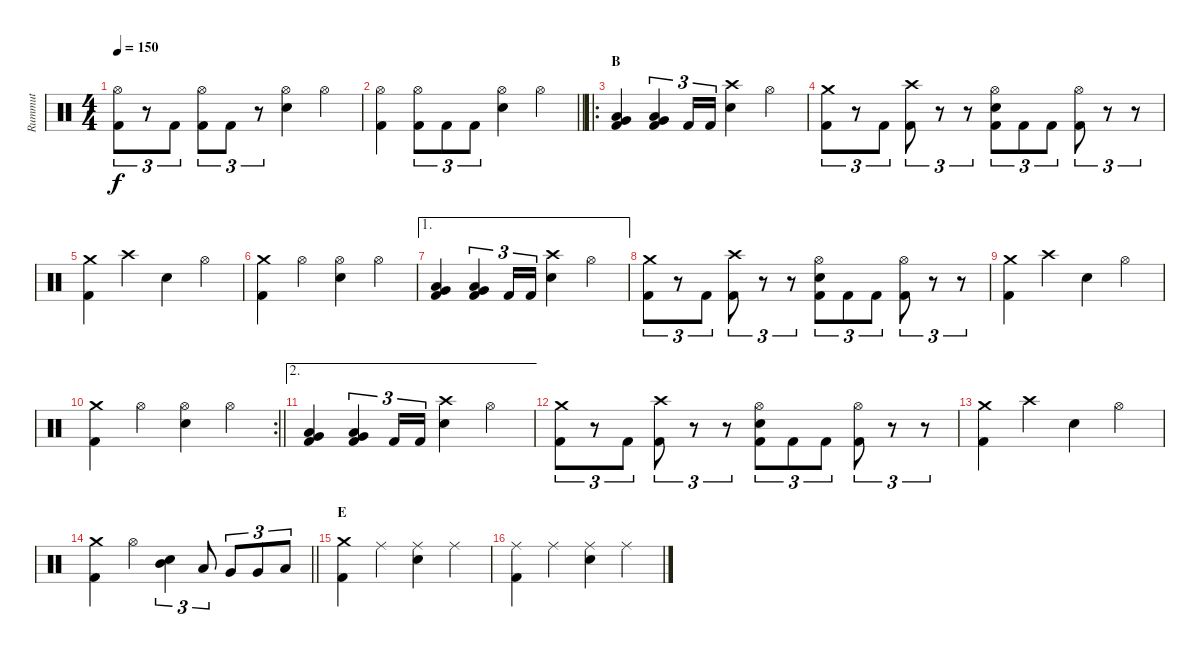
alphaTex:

\track ("Rummut" "Rummut") {mute instrument percussion}
\staff {score}
\articulation defaults
\ts (4 4)
\tempo 150
\clef neutral
\ks c
("Hi-Hat (open)" "Kick (hit) 2").8{tu (3 2) dy f} r.8{tu (3 2)} "Kick (hit) 2".8{tu (3 2)} ("Hi-Hat (open)" "Kick (hit) 2").8{tu (3 2)} "Kick (hit) 2".8{tu (3 2)} r.8{tu (3 2)} ("Hi-Hat (open)" "Electric Snare (hit)").4 "Hi-Hat (open)".4 |
\barLineRight lightlight
("Hi-Hat (open)" "Kick (hit) 2").4 ("Hi-Hat (open)" "Kick (hit) 2").8{tu (3 2)} "Kick (hit) 2".8{tu (3 2)} "Kick (hit) 2".8{tu (3 2)} ("Hi-Hat (open)" "Electric Snare (hit)").4 "Hi-Hat (open)".4 |
\ro
\section ("" "B")
("Low Floor Tom (hit)" "Very Low Tom (hit)" "Kick (hit) 2").4 ("Low Floor Tom (hit)" "Very Low Tom (hit)" "Kick (hit) 2").4{tu (3 2)} "Kick (hit) 2".16{tu (3 2)} "Kick (hit) 2".16{tu (3 2)} ("Crash high (hit)" "Electric Snare (hit)").4 "Hi-Hat (open)".4 |
("Crash medium (hit)" "Kick (hit) 2").8{tu (3 2)} r.8{tu (3 2)} "Kick (hit) 2".8{tu (3 2)} ("Crash high (hit)" "Kick (hit) 2").8{tu (3 2)} r.8{tu (3 2)} r.8{tu (3 2)} ("Hi-Hat (open)" "Electric Snare (hit)" "Kick (hit) 2").8{tu (3 2)} "Kick (hit) 2".8{tu (3 2)} "Kick (hit) 2".8{tu (3 2)} ("Hi-Hat (open)" "Kick (hit) 2").8{tu (3 2)} r.8{tu (3 2)} r.8{tu (3 2)} |
("Crash medium (hit)" "Kick (hit) 2").4 "Crash high (hit)".4 "Electric Snare (hit)".4 "Hi-Hat (open)".4 |
("Crash medium (hit)" "Kick (hit) 2").4 "Hi-Hat (open)".4 ("Hi-Hat (open)" "Electric Snare (hit)").4 "Hi-Hat (open)".4 |
\ae 1
("Low Floor Tom (hit)" "Very Low Tom (hit)" "Kick (hit) 2").4 ("Low Floor Tom (hit)" "Very Low Tom (hit)" "Kick (hit) 2").4{tu (3 2)} "Kick (hit) 2".16{tu (3 2)} "Kick (hit) 2".16{tu (3 2)} ("Crash high (hit)" "Electric Snare (hit)").4 "Hi-Hat (open)".4 |
("Crash medium (hit)" "Kick (hit) 2").8{tu (3 2)} r.8{tu (3 2)} "Kick (hit) 2".8{tu (3 2)} ("Crash high (hit)" "Kick (hit) 2").8{tu (3 2)} r.8{tu (3 2)} r.8{tu (3 2)} ("Hi-Hat (open)" "Electric Snare (hit)" "Kick (hit) 2").8{tu (3 2)} "Kick (hit) 2".8{tu (3 2)} "Kick (hit) 2".8{tu (3 2)} ("Hi-Hat (open)" "Kick (hit) 2").8{tu (3 2)} r.8{tu (3 2)} r.8{tu (3 2)} |
("Crash medium (hit)" "Kick (hit) 2").4 "Crash high (hit)".4 "Electric Snare (hit)".4 "Hi-Hat (open)".4 |
\rc 2
\barLineRight lightlight
("Crash medium (hit)" "Kick (hit) 2").4 "Hi-Hat (open)".4 ("Hi-Hat (open)" "Electric Snare (hit)").4 "Hi-Hat (open)".4 |
\ae 2
("Low Floor Tom (hit)" "Very Low Tom (hit)" "Kick (hit) 2").4 ("Low Floor Tom (hit)" "Very Low Tom (hit)" "Kick (hit) 2").4{tu (3 2)} "Kick (hit) 2".16{tu (3 2)} "Kick (hit) 2".16{tu (3 2)} ("Crash high (hit)" "Electric Snare (hit)").4 "Hi-Hat (open)".4 |
("Crash medium (hit)" "Kick (hit) 2").8{tu (3 2)} r.8{tu (3 2)} "Kick (hit) 2".8{tu (3 2)} ("Crash high (hit)" "Kick (hit) 2").8{tu (3 2)} r.8{tu (3 2)} r.8{tu (3 2)} ("Hi-Hat (open)" "Electric Snare (hit)" "Kick (hit) 2").8{tu (3 2)} "Kick (hit) 2".8{tu (3 2)} "Kick (hit) 2".8{tu (3 2)} ("Hi-Hat (open)" "Kick (hit) 2").8{tu (3 2)} r.8{tu (3 2)} r.8{tu (3 2)} |
("Crash medium (hit)" "Kick (hit) 2").4 "Crash high (hit)".4 "Electric Snare (hit)".4 "Hi-Hat (open)".4 |
\barLineRight lightlight
("Crash medium (hit)" "Kick (hit) 2").4 "Hi-Hat (open)".4 ("Mid Tom (hit)" "Electric Snare (hit)").4{tu (3 2)} "Low Tom (hit)".8{tu (3 2)} "Very Low Tom (hit)".8{tu (3 2)} "Very Low Tom (hit)".8{tu (3 2)} "Low Floor Tom (hit)".8{tu (3 2)} |
\section ("" "E")
("Crash medium (hit)" "Kick (hit) 2").4 "Ride (middle)".4 ("Ride (middle)" "Electric Snare (hit)").4 "Ride (middle)".4 |
("Ride (middle)" "Kick (hit) 2").4 "Ride (middle)".4 ("Ride (middle)" "Electric Snare (hit)").4 "Ride (middle)".4
